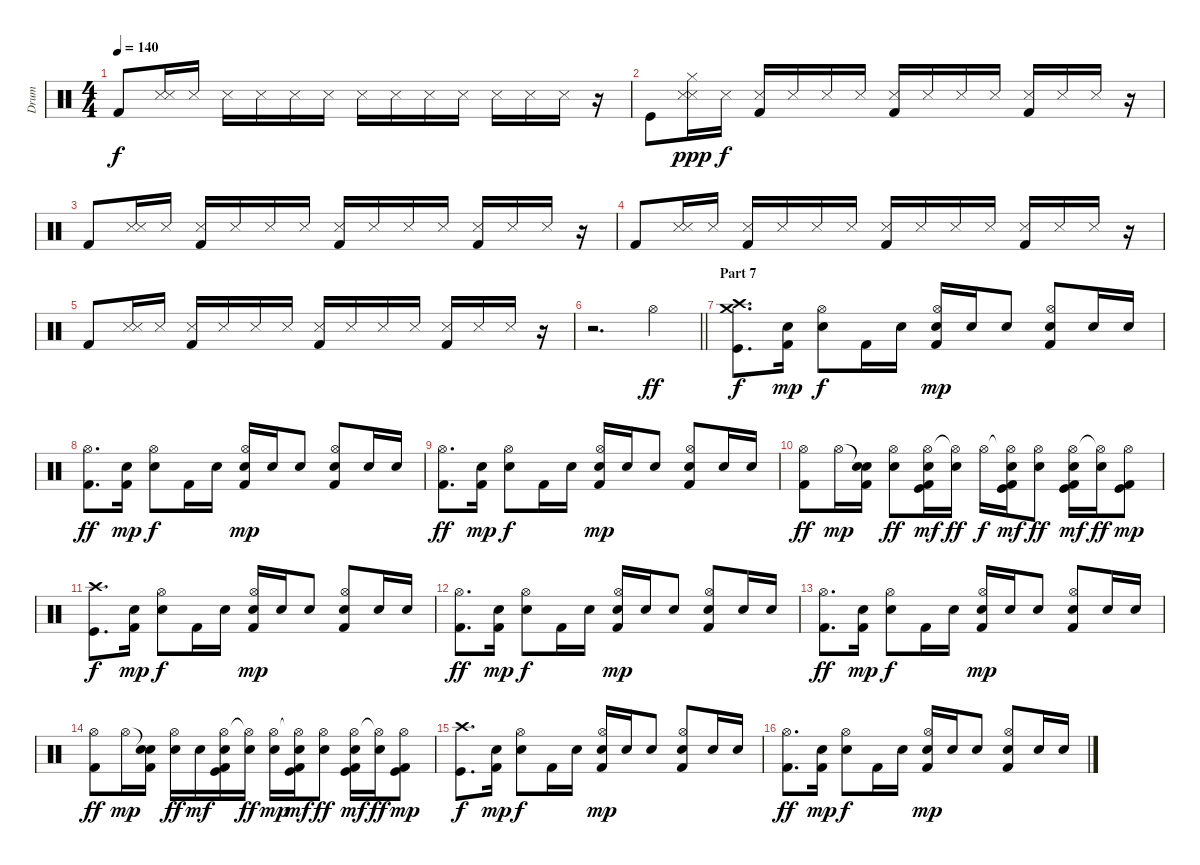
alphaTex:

\track ("Drum" "Drum") {instrument percussion}
\staff {score}
\articulation defaults
\ts (4 4)
\tempo 140
\clef neutral
\ks c "Kick (hit) 2".8{dy f}
("Metronome (hit)" "Snare (side stick) 3").16 "Metronome (hit)".16 "Metronome (hit)".16 "Snare (side stick) 3".16 "Metronome (hit)".16 "Metronome (hit)".16 "Snare (side stick) 3".16 "Metronome (hit)".16 "Metronome (hit)".16 "Snare (side stick) 3".16 "Metronome (hit)".16 "Metronome (hit)".16 "Snare (side stick) 3".16 r.16 |
"Kick (hit)".8 ("Hi-Hat (closed)" "Metronome (hit)" "Snare (side stick) 3").16{dy ppp} "Metronome (hit)".16{dy f} ("Metronome (hit)" "Kick (hit) 2").16 "Snare (side stick) 3".16 "Metronome (hit)".16 "Metronome (hit)".16 ("Snare (side stick) 3" "Kick (hit) 2").16 "Metronome (hit)".16 "Metronome (hit)".16 "Snare (side stick) 3".16 ("Metronome (hit)" "Kick (hit) 2").16 "Metronome (hit)".16 "Snare (side stick) 3".16 r.16 |
"Kick (hit) 2".8 ("Metronome (hit)" "Snare (side stick) 3").16 "Metronome (hit)".16 ("Metronome (hit)" "Kick (hit) 2").16 "Snare (side stick) 3".16 "Metronome (hit)".16 "Metronome (hit)".16 ("Snare (side stick) 3" "Kick (hit) 2").16 "Metronome (hit)".16 "Metronome (hit)".16 "Snare (side stick) 3".16 ("Metronome (hit)" "Kick (hit) 2").16 "Metronome (hit)".16 "Snare (side stick) 3".16 r.16 |
"Kick (hit) 2".8 ("Metronome (hit)" "Snare (side stick) 3").16 "Metronome (hit)".16 ("Metronome (hit)" "Kick (hit) 2").16 "Snare (side stick) 3".16 "Metronome (hit)".16 "Metronome (hit)".16 ("Snare (side stick) 3" "Kick (hit) 2").16 "Metronome (hit)".16 "Metronome (hit)".16 "Snare (side stick) 3".16 ("Metronome (hit)" "Kick (hit) 2").16 "Metronome (hit)".16 "Snare (side stick) 3".16 r.16 |
"Kick (hit) 2".8 ("Metronome (hit)" "Snare (side stick) 3").16 "Metronome (hit)".16 ("Metronome (hit)" "Kick (hit) 2").16 "Snare (side stick) 3".16 "Metronome (hit)".16 "Metronome (hit)".16 ("Snare (side stick) 3" "Kick (hit) 2").16 "Metronome (hit)".16 "Metronome (hit)".16 "Snare (side stick) 3".16 ("Metronome (hit)" "Kick (hit) 2").16 "Metronome (hit)".16 "Snare (side stick) 3".16 r.16 |
\barLineRight lightlight
r.2{d} "Hi-Hat (open)".4{dy ff} |
\section ("" "Part 7")
("Crash medium (hit)" "Crash high (hit)" "Kick (hit)").8{d dy f} ("Electric Snare (hit)" "Kick (hit) 2").16{dy mp} ("Hi-Hat (open)" "Electric Snare (hit)").8{dy f} "Kick (hit) 2".16 "Electric Snare (hit)".16 ("Hi-Hat (open)" "Electric Snare (hit)" "Kick (hit) 2").16{dy mp} "Electric Snare (hit)".16 "Electric Snare (hit)".8 ("Hi-Hat (open)" "Electric Snare (hit)" "Kick (hit) 2").8 "Electric Snare (hit)".16 "Electric Snare (hit)".16 |
("Hi-Hat (open)" "Kick (hit) 2").8{d dy ff} ("Electric Snare (hit)" "Kick (hit) 2").16{dy mp} ("Hi-Hat (open)" "Electric Snare (hit)").8{dy f} "Kick (hit) 2".16 "Electric Snare (hit)".16 ("Hi-Hat (open)" "Electric Snare (hit)" "Kick (hit) 2").16{dy mp} "Electric Snare (hit)".16 "Electric Snare (hit)".8 ("Hi-Hat (open)" "Electric Snare (hit)" "Kick (hit) 2").8 "Electric Snare (hit)".16 "Electric Snare (hit)".16 |
("Hi-Hat (open)" "Kick (hit) 2").8{d dy ff} ("Electric Snare (hit)" "Kick (hit) 2").16{dy mp} ("Hi-Hat (open)" "Electric Snare (hit)").8{dy f} "Kick (hit) 2".16 "Electric Snare (hit)".16 ("Hi-Hat (open)" "Electric Snare (hit)" "Kick (hit) 2").16{dy mp} "Electric Snare (hit)".16 "Electric Snare (hit)".8 ("Hi-Hat (open)" "Electric Snare (hit)" "Kick (hit) 2").8 "Electric Snare (hit)".16 "Electric Snare (hit)".16 |
("Hi-Hat (open)" "Kick (hit) 2").8{dy ff} "Hi-Hat (open)".16{dy mp} ("Snare (hit)"{t} "Electric Snare (hit)" "Kick (hit) 2").16 ("Hi-Hat (open)" "Electric Snare (hit)").8{dy ff} ("Hi-Hat (open)" "Electric Snare (hit)" "Kick (hit)" "Kick (hit) 2").16{dy mf} ("Hi-Hat (open)"{t} "Electric Snare (hit)").16{dy ff} "Hi-Hat (open)".16{dy f} ("Hi-Hat (open)"{t} "Electric Snare (hit)" "Kick (hit)" "Kick (hit) 2").16{dy mf} ("Hi-Hat (open)" "Electric Snare (hit)").8{dy ff} ("Hi-Hat (open)" "Electric Snare (hit)" "Kick (hit)" "Kick (hit) 2").16{dy mf} ("Hi-Hat (open)"{t} "Electric Snare (hit)").16{dy ff} ("Hi-Hat (open)" "Kick (hit)" "Kick (hit) 2").8{dy mp} |
("Crash high (hit)" "Kick (hit)").8{d dy f} ("Electric Snare (hit)" "Kick (hit) 2").16{dy mp} ("Hi-Hat (open)" "Electric Snare (hit)").8{dy f} "Kick (hit) 2".16 "Electric Snare (hit)".16 ("Hi-Hat (open)" "Electric Snare (hit)" "Kick (hit) 2").16{dy mp} "Electric Snare (hit)".16 "Electric Snare (hit)".8 ("Hi-Hat (open)" "Electric Snare (hit)" "Kick (hit) 2").8 "Electric Snare (hit)".16 "Electric Snare (hit)".16 |
("Hi-Hat (open)" "Kick (hit) 2").8{d dy ff} ("Electric Snare (hit)" "Kick (hit) 2").16{dy mp} ("Hi-Hat (open)" "Electric Snare (hit)").8{dy f} "Kick (hit) 2".16 "Electric Snare (hit)".16 ("Hi-Hat (open)" "Electric Snare (hit)" "Kick (hit) 2").16{dy mp} "Electric Snare (hit)".16 "Electric Snare (hit)".8 ("Hi-Hat (open)" "Electric Snare (hit)" "Kick (hit) 2").8 "Electric Snare (hit)".16 "Electric Snare (hit)".16 |
("Hi-Hat (open)" "Kick (hit) 2").8{d dy ff} ("Electric Snare (hit)" "Kick (hit) 2").16{dy mp} ("Hi-Hat (open)" "Electric Snare (hit)").8{dy f} "Kick (hit) 2".16 "Electric Snare (hit)".16 ("Hi-Hat (open)" "Electric Snare (hit)" "Kick (hit) 2").16{dy mp} "Electric Snare (hit)".16 "Electric Snare (hit)".8 ("Hi-Hat (open)" "Electric Snare (hit)" "Kick (hit) 2").8 "Electric Snare (hit)".16 "Electric Snare (hit)".16 |
("Hi-Hat (open)" "Kick (hit) 2").8{dy ff} "Hi-Hat (open)".16{dy mp} ("Snare (hit)"{t} "Electric Snare (hit)" "Kick (hit) 2").16 ("Hi-Hat (open)" "Electric Snare (hit)").16{dy ff} "Electric Snare (hit)".16{dy mf} ("Hi-Hat (open)" "Electric Snare (hit)" "Kick (hit)" "Kick (hit) 2").16 ("Hi-Hat (open)"{t} "Electric Snare (hit)").16{dy ff} ("Hi-Hat (open)" "Electric Snare (hit)").16{dy mp} ("Hi-Hat (open)"{t} "Electric Snare (hit)" "Kick (hit)" "Kick (hit) 2").16{dy mf} ("Hi-Hat (open)" "Electric Snare (hit)").8{dy ff} ("Hi-Hat (open)" "Electric Snare (hit)" "Kick (hit)" "Kick (hit) 2").16{dy mf} ("Hi-Hat (open)"{t} "Electric Snare (hit)").16{dy ff} ("Hi-Hat (open)" "Kick (hit)" "Kick (hit) 2").8{dy mp} |
("Crash high (hit)" "Kick (hit)").8{d dy f} ("Electric Snare (hit)" "Kick (hit) 2").16{dy mp} ("Hi-Hat (open)" "Electric Snare (hit)").8{dy f} "Kick (hit) 2".16 "Electric Snare (hit)".16 ("Hi-Hat (open)" "Electric Snare (hit)" "Kick (hit) 2").16{dy mp} "Electric Snare (hit)".16 "Electric Snare (hit)".8 ("Hi-Hat (open)" "Electric Snare (hit)" "Kick (hit) 2").8 "Electric Snare (hit)".16 "Electric Snare (hit)".16 |
("Hi-Hat (open)" "Kick (hit) 2").8{d dy ff} ("Electric Snare (hit)" "Kick (hit) 2").16{dy mp} ("Hi-Hat (open)" "Electric Snare (hit)").8{dy f} "Kick (hit) 2".16 "Electric Snare (hit)".16 ("Hi-Hat (open)" "Electric Snare (hit)" "Kick (hit) 2").16{dy mp} "Electric Snare (hit)".16 "Electric Snare (hit)".8 ("Hi-Hat (open)" "Electric Snare (hit)" "Kick (hit) 2").8 "Electric Snare (hit)".16 "Electric Snare (hit)".16
